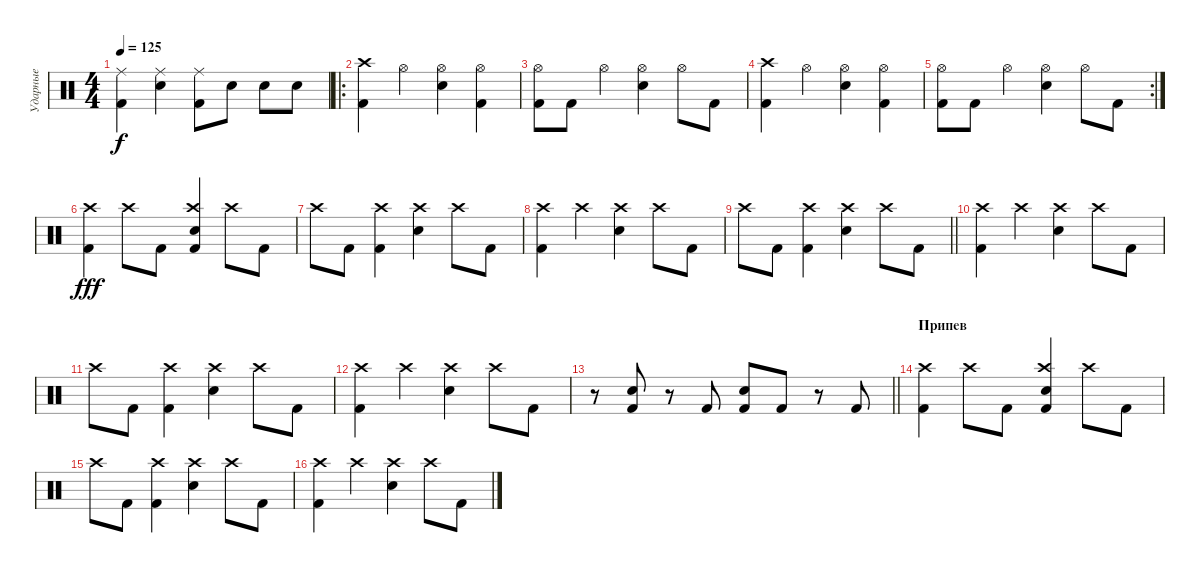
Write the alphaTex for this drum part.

\track ("Ударные" "Ударные") {instrument percussion}
\staff {score}
\articulation defaults
\ts (4 4)
\tempo 125
\clef neutral
\ks c
("Ride (middle)" "Kick (hit) 2").4{dy f} ("Ride (middle)" "Electric Snare (hit)").4 ("Ride (middle)" "Kick (hit) 2").8 "Electric Snare (hit)".8 "Electric Snare (hit)".8 "Electric Snare (hit)".8 |
\ro
("Crash high (hit)" "Kick (hit) 2").4 "Hi-Hat (open)".4 ("Hi-Hat (open)" "Electric Snare (hit)").4 ("Hi-Hat (open)" "Kick (hit) 2").4 |
("Hi-Hat (open)" "Kick (hit) 2").8 "Kick (hit) 2".8 "Hi-Hat (open)".4 ("Hi-Hat (open)" "Electric Snare (hit)").4 "Hi-Hat (open)".8 "Kick (hit) 2".8 |
("Crash high (hit)" "Kick (hit) 2").4 "Hi-Hat (open)".4 ("Hi-Hat (open)" "Electric Snare (hit)").4 ("Hi-Hat (open)" "Kick (hit) 2").4 |
\rc 2
("Hi-Hat (open)" "Kick (hit) 2").8 "Kick (hit) 2".8 "Hi-Hat (open)".4 ("Hi-Hat (open)" "Electric Snare (hit)").4 "Hi-Hat (open)".8 "Kick (hit) 2".8 |
("Crash high (hit)" "Kick (hit) 2").4{dy fff} "Crash high (hit)".8 "Kick (hit) 2".8 ("Crash high (hit)" "Snare (hit) 2" "Kick (hit) 2").4 "Crash high (hit)".8 "Kick (hit) 2".8 |
"Crash high (hit)".8 "Kick (hit) 2".8 ("Crash high (hit)" "Kick (hit) 2").4 ("Crash high (hit)" "Snare (hit) 2").4 "Crash high (hit)".8 "Kick (hit) 2".8 |
("Crash high (hit)" "Kick (hit) 2").4 "Crash high (hit)".4 ("Crash high (hit)" "Snare (hit) 2").4 "Crash high (hit)".8 "Kick (hit) 2".8 |
\barLineRight lightlight "Crash high (hit)".8 "Kick (hit) 2".8
("Crash high (hit)" "Kick (hit) 2").4 ("Crash high (hit)" "Snare (hit) 2").4 "Crash high (hit)".8 "Kick (hit) 2".8 |
("Crash high (hit)" "Kick (hit) 2").4 "Crash high (hit)".4 ("Crash high (hit)" "Snare (hit) 2").4 "Crash high (hit)".8 "Kick (hit) 2".8 |
"Crash high (hit)".8 "Kick (hit) 2".8 ("Crash high (hit)" "Kick (hit) 2").4 ("Crash high (hit)" "Snare (hit) 2").4 "Crash high (hit)".8 "Kick (hit) 2".8 |
("Crash high (hit)" "Kick (hit) 2").4 "Crash high (hit)".4 ("Crash high (hit)" "Snare (hit) 2").4 "Crash high (hit)".8 "Kick (hit) 2".8 |
\barLineRight lightlight
r.8 ("Snare (hit) 2" "Kick (hit) 2").8 r.8 "Kick (hit) 2".8 ("Snare (hit) 2" "Kick (hit) 2").8 "Kick (hit) 2".8 r.8 "Kick (hit) 2".8 |
\section ("" "Припев")
("Crash high (hit)" "Kick (hit) 2").4 "Crash high (hit)".8 "Kick (hit) 2".8 ("Crash high (hit)" "Snare (hit) 2" "Kick (hit) 2").4 "Crash high (hit)".8 "Kick (hit) 2".8 |
"Crash high (hit)".8 "Kick (hit) 2".8 ("Crash high (hit)" "Kick (hit) 2").4 ("Crash high (hit)" "Snare (hit) 2").4 "Crash high (hit)".8 "Kick (hit) 2".8 |
("Crash high (hit)" "Kick (hit) 2").4 "Crash high (hit)".4 ("Crash high (hit)" "Snare (hit) 2").4 "Crash high (hit)".8 "Kick (hit) 2".8
